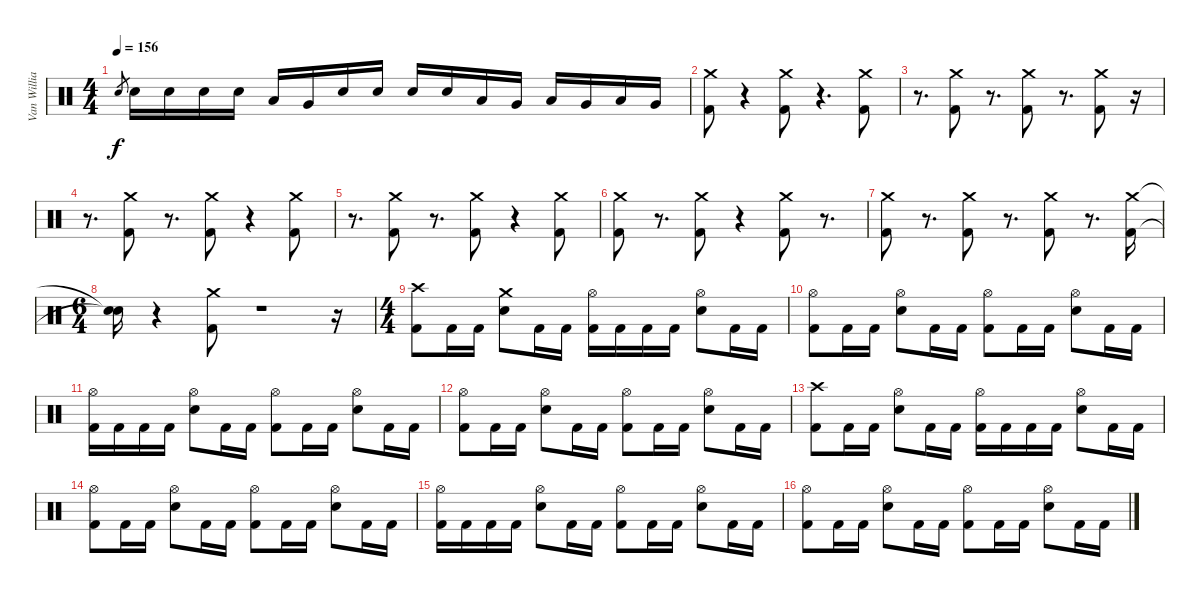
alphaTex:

\track ("Van Williams" "Van Willia") {instrument percussion}
\staff {score}
\articulation defaults
\ts (4 4)
\tempo 156
\clef neutral
\ks c "Electric Snare (hit)".8{gr dy f} "Electric Snare (hit)".16 "Electric Snare (hit)".16 "Electric Snare (hit)".16 "Electric Snare (hit)".16 "Low Tom (hit)".16 "Very Low Tom (hit)".16 "Electric Snare (hit)".16 "Electric Snare (hit)".16 "Electric Snare (hit)".16 "Electric Snare (hit)".16 "Low Tom (hit)".16 "Very Low Tom (hit)".16 "Low Tom (hit)".16 "Very Low Tom (hit)".16 "Low Tom (hit)".16 "Very Low Tom (hit)".16
|
\section ("" "")
("Crash medium (hit)" "Kick (hit) 2").8 r.4 ("Crash medium (hit)" "Kick (hit) 2").8 r.4{d} ("Crash medium (hit)" "Kick (hit) 2").8 |
r.8{d} ("Crash medium (hit)" "Kick (hit) 2").8 r.8{d} ("Crash medium (hit)" "Kick (hit) 2").8 r.8{d} ("Crash medium (hit)" "Kick (hit) 2").8 r.16 |
r.8{d} ("Crash medium (hit)" "Kick (hit) 2").8 r.8{d} ("Crash medium (hit)" "Kick (hit) 2").8 r.4 ("Crash medium (hit)" "Kick (hit) 2").8 |
r.8{d} ("Crash medium (hit)" "Kick (hit) 2").8 r.8{d} ("Crash medium (hit)" "Kick (hit) 2").8 r.4 ("Crash medium (hit)" "Kick (hit) 2").8 |
("Crash medium (hit)" "Kick (hit) 2").8 r.8{d} ("Crash medium (hit)" "Kick (hit) 2").8 r.4 ("Crash medium (hit)" "Kick (hit) 2").8 r.8{d} |
("Crash medium (hit)" "Kick (hit) 2").8 r.8{d} ("Crash medium (hit)" "Kick (hit) 2").8 r.8{d} ("Crash medium (hit)" "Kick (hit) 2").8 r.8{d} ("Crash medium (hit)" "Kick (hit) 2").16 |
\ts (6 4)
("Snare (hit)"{t} "Snare (hit)"{t}).16 r.4 ("Crash medium (hit)" "Kick (hit) 2").8 r.1 r.16 |
\ts (4 4)
\section ("" "")
("Crash high (hit)" "Kick (hit) 2").8 "Kick (hit) 2".16 "Kick (hit) 2".16 ("Crash medium (hit)" "Electric Snare (hit)").8 "Kick (hit) 2".16 "Kick (hit) 2".16 ("Hi-Hat (open)" "Kick (hit) 2").16 "Kick (hit) 2".16 "Kick (hit) 2".16 "Kick (hit) 2".16 ("Hi-Hat (open)" "Electric Snare (hit)").8 "Kick (hit) 2".16 "Kick (hit) 2".16 |
("Hi-Hat (open)" "Kick (hit) 2").8 "Kick (hit) 2".16 "Kick (hit) 2".16 ("Hi-Hat (open)" "Electric Snare (hit)").8 "Kick (hit) 2".16 "Kick (hit) 2".16 ("Hi-Hat (open)" "Kick (hit) 2").8 "Kick (hit) 2".16 "Kick (hit) 2".16 ("Hi-Hat (open)" "Electric Snare (hit)").8 "Kick (hit) 2".16 "Kick (hit) 2".16 |
("Hi-Hat (open)" "Kick (hit) 2").16 "Kick (hit) 2".16 "Kick (hit) 2".16 "Kick (hit) 2".16 ("Hi-Hat (open)" "Electric Snare (hit)").8 "Kick (hit) 2".16 "Kick (hit) 2".16 ("Hi-Hat (open)" "Kick (hit) 2").8 "Kick (hit) 2".16 "Kick (hit) 2".16 ("Hi-Hat (open)" "Electric Snare (hit)").8 "Kick (hit) 2".16 "Kick (hit) 2".16 |
("Hi-Hat (open)" "Kick (hit) 2").8 "Kick (hit) 2".16 "Kick (hit) 2".16 ("Hi-Hat (open)" "Electric Snare (hit)").8 "Kick (hit) 2".16 "Kick (hit) 2".16 ("Hi-Hat (open)" "Kick (hit) 2").8 "Kick (hit) 2".16 "Kick (hit) 2".16 ("Hi-Hat (open)" "Electric Snare (hit)").8 "Kick (hit) 2".16 "Kick (hit) 2".16 |
("Crash high (hit)" "Kick (hit) 2").8 "Kick (hit) 2".16 "Kick (hit) 2".16 ("Hi-Hat (open)" "Electric Snare (hit)").8 "Kick (hit) 2".16 "Kick (hit) 2".16 ("Hi-Hat (open)" "Kick (hit) 2").16 "Kick (hit) 2".16 "Kick (hit) 2".16 "Kick (hit) 2".16 ("Hi-Hat (open)" "Electric Snare (hit)").8 "Kick (hit) 2".16 "Kick (hit) 2".16 |
("Hi-Hat (open)" "Kick (hit) 2").8 "Kick (hit) 2".16 "Kick (hit) 2".16 ("Hi-Hat (open)" "Electric Snare (hit)").8 "Kick (hit) 2".16 "Kick (hit) 2".16 ("Hi-Hat (open)" "Kick (hit) 2").8 "Kick (hit) 2".16 "Kick (hit) 2".16 ("Hi-Hat (open)" "Electric Snare (hit)").8 "Kick (hit) 2".16 "Kick (hit) 2".16 |
("Hi-Hat (open)" "Kick (hit) 2").16 "Kick (hit) 2".16 "Kick (hit) 2".16 "Kick (hit) 2".16 ("Hi-Hat (open)" "Electric Snare (hit)").8 "Kick (hit) 2".16 "Kick (hit) 2".16 ("Hi-Hat (open)" "Kick (hit) 2").8 "Kick (hit) 2".16 "Kick (hit) 2".16 ("Hi-Hat (open)" "Electric Snare (hit)").8 "Kick (hit) 2".16 "Kick (hit) 2".16 |
("Hi-Hat (open)" "Kick (hit) 2").8 "Kick (hit) 2".16 "Kick (hit) 2".16 ("Hi-Hat (open)" "Electric Snare (hit)").8 "Kick (hit) 2".16 "Kick (hit) 2".16 ("Hi-Hat (open)" "Kick (hit) 2").8 "Kick (hit) 2".16 "Kick (hit) 2".16 ("Hi-Hat (open)" "Electric Snare (hit)").8 "Kick (hit) 2".16 "Kick (hit) 2".16
